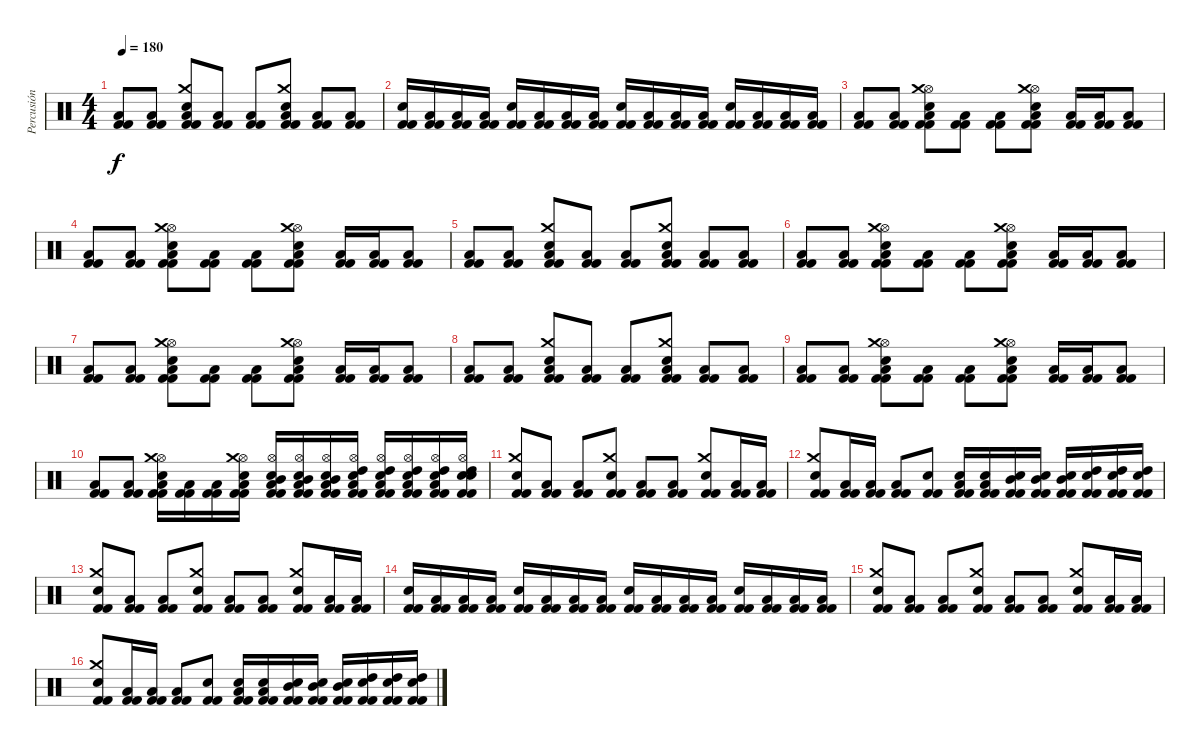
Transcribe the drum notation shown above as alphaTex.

\track ("Percusión" "Percusión") {instrument percussion}
\staff {score}
\articulation defaults
\ts (4 4)
\tempo 180
\clef neutral
\ks c
("Kick (hit) 2" "Kick (hit) 2" "Low Floor Tom (hit)").8{dy f} ("Kick (hit) 2" "Kick (hit) 2" "Low Floor Tom (hit)").8 ("Crash medium (hit)" "Kick (hit) 2" "Kick (hit) 2" "Low Floor Tom (hit)" "Snare (hit) 2").8 ("Kick (hit) 2" "Kick (hit) 2" "Low Floor Tom (hit)").8 ("Kick (hit) 2" "Kick (hit) 2" "Low Floor Tom (hit)").8 ("Crash medium (hit)" "Kick (hit) 2" "Kick (hit) 2" "Low Floor Tom (hit)" "Snare (hit) 2").8 ("Kick (hit) 2" "Kick (hit) 2" "Low Floor Tom (hit)").8 ("Kick (hit) 2" "Kick (hit) 2" "Low Floor Tom (hit)").8 |
("Kick (hit) 2" "Kick (hit) 2" "Snare (hit) 2").16 ("Kick (hit) 2" "Kick (hit) 2" "Low Floor Tom (hit)").16 ("Kick (hit) 2" "Kick (hit) 2" "Low Floor Tom (hit)").16 ("Kick (hit) 2" "Kick (hit) 2" "Low Floor Tom (hit)").16 ("Kick (hit) 2" "Kick (hit) 2" "Snare (hit) 2").16 ("Kick (hit) 2" "Kick (hit) 2" "Low Floor Tom (hit)").16 ("Kick (hit) 2" "Kick (hit) 2" "Low Floor Tom (hit)").16 ("Kick (hit) 2" "Kick (hit) 2" "Low Floor Tom (hit)").16 ("Kick (hit) 2" "Kick (hit) 2" "Snare (hit) 2").16 ("Kick (hit) 2" "Kick (hit) 2" "Low Floor Tom (hit)").16 ("Kick (hit) 2" "Kick (hit) 2" "Low Floor Tom (hit)").16 ("Kick (hit) 2" "Kick (hit) 2" "Low Floor Tom (hit)").16 ("Kick (hit) 2" "Kick (hit) 2" "Snare (hit) 2").16 ("Kick (hit) 2" "Kick (hit) 2" "Low Floor Tom (hit)").16 ("Kick (hit) 2" "Kick (hit) 2" "Low Floor Tom (hit)").16 ("Kick (hit) 2" "Kick (hit) 2" "Low Floor Tom (hit)").16 |
("Kick (hit) 2" "Kick (hit) 2" "Low Floor Tom (hit)").8 ("Kick (hit) 2" "Kick (hit) 2" "Low Floor Tom (hit)").8 ("Hi-Hat (open)" "Crash medium (hit)" "Kick (hit) 2" "Kick (hit) 2" "Low Floor Tom (hit)" "Snare (hit) 2").8 ("Kick (hit) 2" "Kick (hit) 2" "Low Floor Tom (hit)").8 ("Kick (hit) 2" "Kick (hit) 2" "Low Floor Tom (hit)").8 ("Hi-Hat (open)" "Crash medium (hit)" "Kick (hit) 2" "Kick (hit) 2" "Low Floor Tom (hit)" "Snare (hit) 2").8 ("Kick (hit) 2" "Kick (hit) 2" "Low Floor Tom (hit)").16 ("Kick (hit) 2" "Kick (hit) 2" "Low Floor Tom (hit)").16 ("Kick (hit) 2" "Kick (hit) 2" "Low Floor Tom (hit)").8 |
("Kick (hit) 2" "Kick (hit) 2" "Low Floor Tom (hit)").8 ("Kick (hit) 2" "Kick (hit) 2" "Low Floor Tom (hit)").8 ("Hi-Hat (open)" "Crash medium (hit)" "Kick (hit) 2" "Kick (hit) 2" "Low Floor Tom (hit)" "Snare (hit) 2").8 ("Kick (hit) 2" "Kick (hit) 2" "Low Floor Tom (hit)").8 ("Kick (hit) 2" "Kick (hit) 2" "Low Floor Tom (hit)").8 ("Hi-Hat (open)" "Crash medium (hit)" "Kick (hit) 2" "Kick (hit) 2" "Low Floor Tom (hit)" "Snare (hit) 2").8 ("Kick (hit) 2" "Kick (hit) 2" "Low Floor Tom (hit)").16 ("Kick (hit) 2" "Kick (hit) 2" "Low Floor Tom (hit)").16 ("Kick (hit) 2" "Kick (hit) 2" "Low Floor Tom (hit)").8 |
("Kick (hit) 2" "Kick (hit) 2" "Low Floor Tom (hit)").8 ("Kick (hit) 2" "Kick (hit) 2" "Low Floor Tom (hit)").8 ("Crash medium (hit)" "Kick (hit) 2" "Kick (hit) 2" "Low Floor Tom (hit)" "Snare (hit) 2").8 ("Kick (hit) 2" "Kick (hit) 2" "Low Floor Tom (hit)").8 ("Kick (hit) 2" "Kick (hit) 2" "Low Floor Tom (hit)").8 ("Crash medium (hit)" "Kick (hit) 2" "Kick (hit) 2" "Low Floor Tom (hit)" "Snare (hit) 2").8 ("Kick (hit) 2" "Kick (hit) 2" "Low Floor Tom (hit)").8 ("Kick (hit) 2" "Kick (hit) 2" "Low Floor Tom (hit)").8 |
("Kick (hit) 2" "Kick (hit) 2" "Low Floor Tom (hit)").8 ("Kick (hit) 2" "Kick (hit) 2" "Low Floor Tom (hit)").8 ("Hi-Hat (open)" "Crash medium (hit)" "Kick (hit) 2" "Kick (hit) 2" "Low Floor Tom (hit)" "Snare (hit) 2").8 ("Kick (hit) 2" "Kick (hit) 2" "Low Floor Tom (hit)").8 ("Kick (hit) 2" "Kick (hit) 2" "Low Floor Tom (hit)").8 ("Hi-Hat (open)" "Crash medium (hit)" "Kick (hit) 2" "Kick (hit) 2" "Low Floor Tom (hit)" "Snare (hit) 2").8 ("Kick (hit) 2" "Kick (hit) 2" "Low Floor Tom (hit)").16 ("Kick (hit) 2" "Kick (hit) 2" "Low Floor Tom (hit)").16 ("Kick (hit) 2" "Kick (hit) 2" "Low Floor Tom (hit)").8 |
("Kick (hit) 2" "Kick (hit) 2" "Low Floor Tom (hit)").8 ("Kick (hit) 2" "Kick (hit) 2" "Low Floor Tom (hit)").8 ("Hi-Hat (open)" "Crash medium (hit)" "Kick (hit) 2" "Kick (hit) 2" "Low Floor Tom (hit)" "Snare (hit) 2").8 ("Kick (hit) 2" "Kick (hit) 2" "Low Floor Tom (hit)").8 ("Kick (hit) 2" "Kick (hit) 2" "Low Floor Tom (hit)").8 ("Hi-Hat (open)" "Crash medium (hit)" "Kick (hit) 2" "Kick (hit) 2" "Low Floor Tom (hit)" "Snare (hit) 2").8 ("Kick (hit) 2" "Kick (hit) 2" "Low Floor Tom (hit)").16 ("Kick (hit) 2" "Kick (hit) 2" "Low Floor Tom (hit)").16 ("Kick (hit) 2" "Kick (hit) 2" "Low Floor Tom (hit)").8 |
("Kick (hit) 2" "Kick (hit) 2" "Low Floor Tom (hit)").8 ("Kick (hit) 2" "Kick (hit) 2" "Low Floor Tom (hit)").8 ("Crash medium (hit)" "Kick (hit) 2" "Kick (hit) 2" "Low Floor Tom (hit)" "Snare (hit) 2").8 ("Kick (hit) 2" "Kick (hit) 2" "Low Floor Tom (hit)").8 ("Kick (hit) 2" "Kick (hit) 2" "Low Floor Tom (hit)").8 ("Crash medium (hit)" "Kick (hit) 2" "Kick (hit) 2" "Low Floor Tom (hit)" "Snare (hit) 2").8 ("Kick (hit) 2" "Kick (hit) 2" "Low Floor Tom (hit)").8 ("Kick (hit) 2" "Kick (hit) 2" "Low Floor Tom (hit)").8 |
("Kick (hit) 2" "Kick (hit) 2" "Low Floor Tom (hit)").8 ("Kick (hit) 2" "Kick (hit) 2" "Low Floor Tom (hit)").8 ("Hi-Hat (open)" "Crash medium (hit)" "Kick (hit) 2" "Kick (hit) 2" "Low Floor Tom (hit)" "Snare (hit) 2").8 ("Kick (hit) 2" "Kick (hit) 2" "Low Floor Tom (hit)").8 ("Kick (hit) 2" "Kick (hit) 2" "Low Floor Tom (hit)").8 ("Hi-Hat (open)" "Crash medium (hit)" "Kick (hit) 2" "Kick (hit) 2" "Low Floor Tom (hit)" "Snare (hit) 2").8 ("Kick (hit) 2" "Kick (hit) 2" "Low Floor Tom (hit)").16 ("Kick (hit) 2" "Kick (hit) 2" "Low Floor Tom (hit)").16 ("Kick (hit) 2" "Kick (hit) 2" "Low Floor Tom (hit)").8 |
("Kick (hit) 2" "Kick (hit) 2" "Low Floor Tom (hit)").8 ("Kick (hit) 2" "Kick (hit) 2" "Low Floor Tom (hit)").8 ("Hi-Hat (open)" "Crash medium (hit)" "Kick (hit) 2" "Kick (hit) 2" "Low Floor Tom (hit)" "Snare (hit) 2").16 ("Kick (hit) 2" "Kick (hit) 2" "Low Floor Tom (hit)").16 ("Kick (hit) 2" "Kick (hit) 2" "Low Floor Tom (hit)").16 ("Hi-Hat (open)" "Crash medium (hit)" "Kick (hit) 2" "Kick (hit) 2" "Low Floor Tom (hit)" "Snare (hit) 2").16 ("Hi-Hat (open)" "Mid Tom (hit)" "Kick (hit) 2" "Kick (hit) 2" "Low Floor Tom (hit)" "Snare (hit) 2").16 ("Hi-Hat (open)" "Mid Tom (hit)" "Kick (hit) 2" "Kick (hit) 2" "Low Floor Tom (hit)" "Snare (hit) 2").16 ("Hi-Hat (open)" "Mid Tom (hit)" "Kick (hit) 2" "Kick (hit) 2" "Low Floor Tom (hit)" "Snare (hit) 2").16 ("Hi-Hat (open)" "High Tom (hit)" "Kick (hit) 2" "Kick (hit) 2" "Low Floor Tom (hit)" "Snare (hit) 2").16 ("Hi-Hat (open)" "High Tom (hit)" "Kick (hit) 2" "Kick (hit) 2" "Low Floor Tom (hit)" "Snare (hit) 2").16 ("Hi-Hat (open)" "High Tom (hit)" "Kick (hit) 2" "Kick (hit) 2" "Low Floor Tom (hit)" "Snare (hit) 2").16 ("Hi-Hat (open)" "High Tom (hit)" "Kick (hit) 2" "Kick (hit) 2" "Low Floor Tom (hit)" "Snare (hit) 2").16 ("Hi-Hat (open)" "High Tom (hit)" "Kick (hit) 2" "Kick (hit) 2" "Snare (hit)" "Snare (hit) 2").16 |
("Crash medium (hit)" "Kick (hit) 2" "Kick (hit) 2" "Snare (hit) 2").8 ("Kick (hit) 2" "Kick (hit) 2" "Low Floor Tom (hit)").8 ("Kick (hit) 2" "Kick (hit) 2" "Low Floor Tom (hit)").8 ("Crash medium (hit)" "Kick (hit) 2" "Kick (hit) 2" "Snare (hit) 2").8 ("Kick (hit) 2" "Kick (hit) 2" "Low Floor Tom (hit)").8 ("Kick (hit) 2" "Kick (hit) 2" "Low Floor Tom (hit)").8 ("Crash medium (hit)" "Kick (hit) 2" "Kick (hit) 2" "Snare (hit) 2").8 ("Kick (hit) 2" "Kick (hit) 2" "Low Floor Tom (hit)").16 ("Kick (hit) 2" "Kick (hit) 2" "Low Floor Tom (hit)").16 |
("Crash medium (hit)" "Kick (hit) 2" "Kick (hit) 2" "Snare (hit) 2").8 ("Kick (hit) 2" "Kick (hit) 2" "Low Floor Tom (hit)").16 ("Kick (hit) 2" "Kick (hit) 2" "Low Floor Tom (hit)").16 ("Kick (hit) 2" "Kick (hit) 2" "Low Floor Tom (hit)").8 ("Kick (hit) 2" "Kick (hit) 2" "Snare (hit) 2").8 ("Snare (hit) 2" "Kick (hit) 2" "Kick (hit) 2" "Low Tom (hit)").16 ("Snare (hit) 2" "Kick (hit) 2" "Kick (hit) 2" "Low Tom (hit)").16 ("Snare (hit) 2" "Kick (hit) 2" "Kick (hit) 2" "Mid Tom (hit)").16 ("Snare (hit) 2" "Kick (hit) 2" "Kick (hit) 2" "Mid Tom (hit)").16 ("Electric Snare (hit)" "Kick (hit) 2" "Kick (hit) 2" "Mid Tom (hit)").16 ("Electric Snare (hit)" "Kick (hit) 2" "Kick (hit) 2" "High Tom (hit)").16 ("Electric Snare (hit)" "Kick (hit) 2" "Kick (hit) 2" "High Tom (hit)").16 ("Electric Snare (hit)" "Kick (hit) 2" "Kick (hit) 2" "High Tom (hit)").16 |
("Crash medium (hit)" "Kick (hit) 2" "Kick (hit) 2" "Snare (hit) 2").8 ("Kick (hit) 2" "Kick (hit) 2" "Low Floor Tom (hit)").8 ("Kick (hit) 2" "Kick (hit) 2" "Low Floor Tom (hit)").8 ("Crash medium (hit)" "Kick (hit) 2" "Kick (hit) 2" "Snare (hit) 2").8 ("Kick (hit) 2" "Kick (hit) 2" "Low Floor Tom (hit)").8 ("Kick (hit) 2" "Kick (hit) 2" "Low Floor Tom (hit)").8 ("Crash medium (hit)" "Kick (hit) 2" "Kick (hit) 2" "Snare (hit) 2").8 ("Kick (hit) 2" "Kick (hit) 2" "Low Floor Tom (hit)").16 ("Kick (hit) 2" "Kick (hit) 2" "Low Floor Tom (hit)").16 |
("Kick (hit) 2" "Kick (hit) 2" "Snare (hit) 2").16 ("Kick (hit) 2" "Kick (hit) 2" "Low Floor Tom (hit)").16 ("Kick (hit) 2" "Kick (hit) 2" "Low Floor Tom (hit)").16 ("Kick (hit) 2" "Kick (hit) 2" "Low Floor Tom (hit)").16 ("Kick (hit) 2" "Kick (hit) 2" "Snare (hit) 2").16 ("Kick (hit) 2" "Kick (hit) 2" "Low Floor Tom (hit)").16 ("Kick (hit) 2" "Kick (hit) 2" "Low Floor Tom (hit)").16 ("Kick (hit) 2" "Kick (hit) 2" "Low Floor Tom (hit)").16 ("Kick (hit) 2" "Kick (hit) 2" "Snare (hit) 2").16 ("Kick (hit) 2" "Kick (hit) 2" "Low Floor Tom (hit)").16 ("Kick (hit) 2" "Kick (hit) 2" "Low Floor Tom (hit)").16 ("Kick (hit) 2" "Kick (hit) 2" "Low Floor Tom (hit)").16 ("Kick (hit) 2" "Kick (hit) 2" "Snare (hit) 2").16 ("Kick (hit) 2" "Kick (hit) 2" "Low Floor Tom (hit)").16 ("Kick (hit) 2" "Kick (hit) 2" "Low Floor Tom (hit)").16 ("Kick (hit) 2" "Kick (hit) 2" "Low Floor Tom (hit)").16 |
("Crash medium (hit)" "Kick (hit) 2" "Kick (hit) 2" "Snare (hit) 2").8 ("Kick (hit) 2" "Kick (hit) 2" "Low Floor Tom (hit)").8 ("Kick (hit) 2" "Kick (hit) 2" "Low Floor Tom (hit)").8 ("Crash medium (hit)" "Kick (hit) 2" "Kick (hit) 2" "Snare (hit) 2").8 ("Kick (hit) 2" "Kick (hit) 2" "Low Floor Tom (hit)").8 ("Kick (hit) 2" "Kick (hit) 2" "Low Floor Tom (hit)").8 ("Crash medium (hit)" "Kick (hit) 2" "Kick (hit) 2" "Snare (hit) 2").8 ("Kick (hit) 2" "Kick (hit) 2" "Low Floor Tom (hit)").16 ("Kick (hit) 2" "Kick (hit) 2" "Low Floor Tom (hit)").16 |
("Crash medium (hit)" "Kick (hit) 2" "Kick (hit) 2" "Snare (hit) 2").8 ("Kick (hit) 2" "Kick (hit) 2" "Low Floor Tom (hit)").16 ("Kick (hit) 2" "Kick (hit) 2" "Low Floor Tom (hit)").16 ("Kick (hit) 2" "Kick (hit) 2" "Low Floor Tom (hit)").8 ("Kick (hit) 2" "Kick (hit) 2" "Snare (hit) 2").8 ("Snare (hit) 2" "Kick (hit) 2" "Kick (hit) 2" "Low Tom (hit)").16 ("Snare (hit) 2" "Kick (hit) 2" "Kick (hit) 2" "Low Tom (hit)").16 ("Snare (hit) 2" "Kick (hit) 2" "Kick (hit) 2" "Mid Tom (hit)").16 ("Snare (hit) 2" "Kick (hit) 2" "Kick (hit) 2" "Mid Tom (hit)").16 ("Electric Snare (hit)" "Kick (hit) 2" "Kick (hit) 2" "Mid Tom (hit)").16 ("Electric Snare (hit)" "Kick (hit) 2" "Kick (hit) 2" "High Tom (hit)").16 ("Electric Snare (hit)" "Kick (hit) 2" "Kick (hit) 2" "High Tom (hit)").16 ("Electric Snare (hit)" "Kick (hit) 2" "Kick (hit) 2" "High Tom (hit)").16
